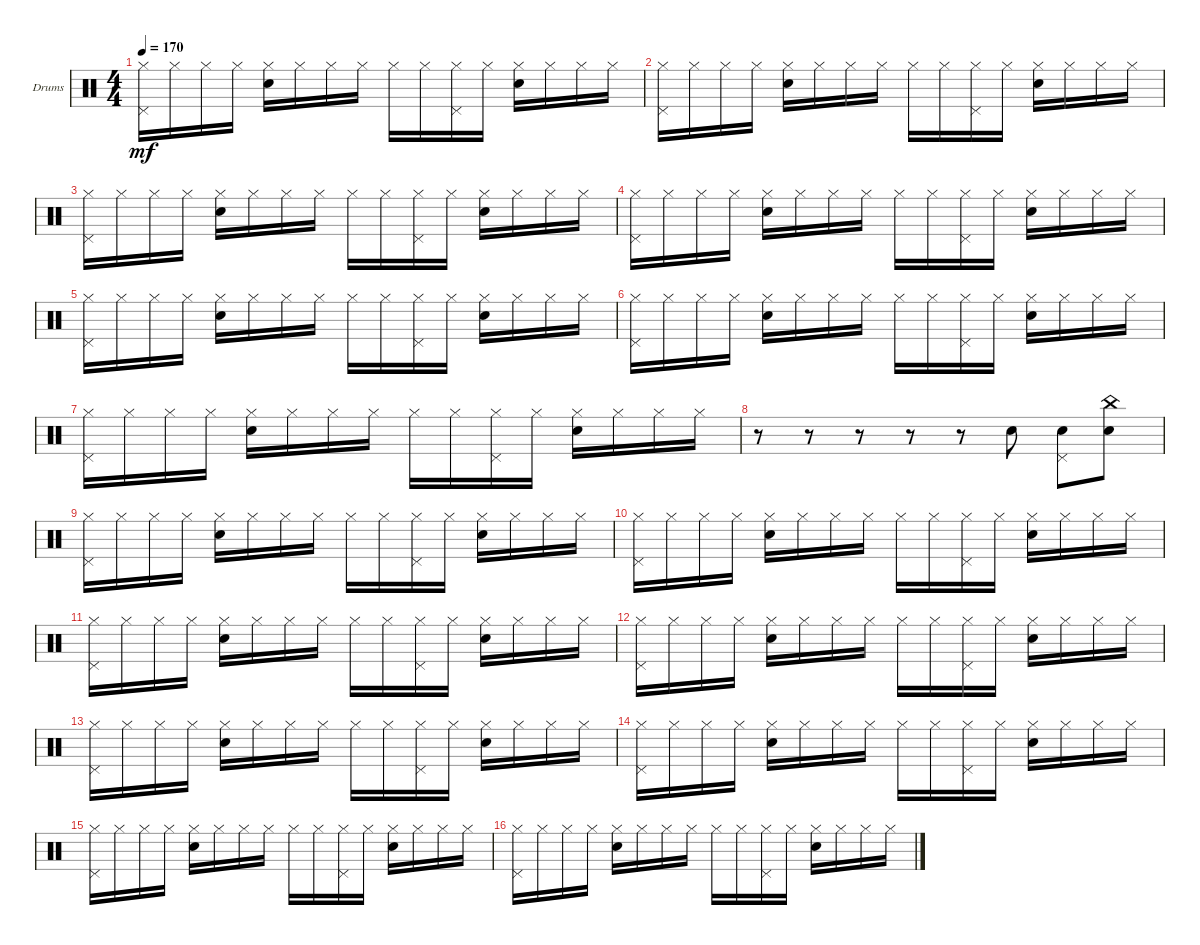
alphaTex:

\defaultSystemsLayout 4
\bracketExtendMode groupsimilarinstruments
\firstSystemTrackNameOrientation horizontal
\otherSystemsTrackNameOrientation horizontal
\track ("Drumkit" "Drums") {instrument percussion}
\staff {score}
\articulation defaults
\ts (4 4)
\tempo 170
\clef neutral
\scale
0.333333
\ks c
("Hi-Hat (closed)" "Pedal Hi-Hat (hit)").16{dy mf} "Hi-Hat (closed)".16 "Hi-Hat (closed)".16 "Hi-Hat (closed)".16 ("Hi-Hat (closed)" "Snare (hit) 2").16 "Hi-Hat (closed)".16 "Hi-Hat (closed)".16 "Hi-Hat (closed)".16 "Hi-Hat (closed)".16 "Hi-Hat (closed)".16 ("Hi-Hat (closed)" "Pedal Hi-Hat (hit)").16 "Hi-Hat (closed)".16 ("Hi-Hat (closed)" "Snare (hit) 2").16 "Hi-Hat (closed)".16 "Hi-Hat (closed)".16 "Hi-Hat (closed)".16 |
\scale
0.333333 ("Hi-Hat (closed)" "Pedal Hi-Hat (hit)").16 "Hi-Hat (closed)".16 "Hi-Hat (closed)".16 "Hi-Hat (closed)".16 ("Hi-Hat (closed)" "Snare (hit) 2").16 "Hi-Hat (closed)".16 "Hi-Hat (closed)".16 "Hi-Hat (closed)".16 "Hi-Hat (closed)".16 "Hi-Hat (closed)".16 ("Hi-Hat (closed)" "Pedal Hi-Hat (hit)").16 "Hi-Hat (closed)".16 ("Hi-Hat (closed)" "Snare (hit) 2").16 "Hi-Hat (closed)".16 "Hi-Hat (closed)".16 "Hi-Hat (closed)".16 |
\scale
0.333333 ("Hi-Hat (closed)" "Pedal Hi-Hat (hit)").16 "Hi-Hat (closed)".16 "Hi-Hat (closed)".16 "Hi-Hat (closed)".16 ("Hi-Hat (closed)" "Snare (hit) 2").16 "Hi-Hat (closed)".16 "Hi-Hat (closed)".16 "Hi-Hat (closed)".16 "Hi-Hat (closed)".16 "Hi-Hat (closed)".16 ("Hi-Hat (closed)" "Pedal Hi-Hat (hit)").16 "Hi-Hat (closed)".16 ("Hi-Hat (closed)" "Snare (hit) 2").16 "Hi-Hat (closed)".16 "Hi-Hat (closed)".16 "Hi-Hat (closed)".16 |
\scale
0.333333 ("Hi-Hat (closed)" "Pedal Hi-Hat (hit)").16 "Hi-Hat (closed)".16 "Hi-Hat (closed)".16 "Hi-Hat (closed)".16 ("Hi-Hat (closed)" "Snare (hit) 2").16 "Hi-Hat (closed)".16 "Hi-Hat (closed)".16 "Hi-Hat (closed)".16 "Hi-Hat (closed)".16 "Hi-Hat (closed)".16 ("Hi-Hat (closed)" "Pedal Hi-Hat (hit)").16 "Hi-Hat (closed)".16 ("Hi-Hat (closed)" "Snare (hit) 2").16 "Hi-Hat (closed)".16 "Hi-Hat (closed)".16 "Hi-Hat (closed)".16 |
\scale
0.333333 ("Hi-Hat (closed)" "Pedal Hi-Hat (hit)").16 "Hi-Hat (closed)".16 "Hi-Hat (closed)".16 "Hi-Hat (closed)".16 ("Hi-Hat (closed)" "Snare (hit) 2").16 "Hi-Hat (closed)".16 "Hi-Hat (closed)".16 "Hi-Hat (closed)".16 "Hi-Hat (closed)".16 "Hi-Hat (closed)".16 ("Hi-Hat (closed)" "Pedal Hi-Hat (hit)").16 "Hi-Hat (closed)".16 ("Hi-Hat (closed)" "Snare (hit) 2").16 "Hi-Hat (closed)".16 "Hi-Hat (closed)".16 "Hi-Hat (closed)".16 |
\scale
0.333333 ("Hi-Hat (closed)" "Pedal Hi-Hat (hit)").16 "Hi-Hat (closed)".16 "Hi-Hat (closed)".16 "Hi-Hat (closed)".16 ("Hi-Hat (closed)" "Snare (hit) 2").16 "Hi-Hat (closed)".16 "Hi-Hat (closed)".16 "Hi-Hat (closed)".16 "Hi-Hat (closed)".16 "Hi-Hat (closed)".16 ("Hi-Hat (closed)" "Pedal Hi-Hat (hit)").16 "Hi-Hat (closed)".16 ("Hi-Hat (closed)" "Snare (hit) 2").16 "Hi-Hat (closed)".16 "Hi-Hat (closed)".16 "Hi-Hat (closed)".16 |
\scale
0.333333 ("Hi-Hat (closed)" "Pedal Hi-Hat (hit)").16 "Hi-Hat (closed)".16 "Hi-Hat (closed)".16 "Hi-Hat (closed)".16 ("Hi-Hat (closed)" "Snare (hit) 2").16 "Hi-Hat (closed)".16 "Hi-Hat (closed)".16 "Hi-Hat (closed)".16 "Hi-Hat (closed)".16 "Hi-Hat (closed)".16 ("Hi-Hat (closed)" "Pedal Hi-Hat (hit)").16 "Hi-Hat (closed)".16 ("Hi-Hat (closed)" "Snare (hit) 2").16 "Hi-Hat (closed)".16 "Hi-Hat (closed)".16 "Hi-Hat (closed)".16 |
\scale
0.333333 r.8 r.8 r.8 r.8 r.8 "Snare (hit) 2".8 ("Pedal Hi-Hat (hit)" "Snare (hit) 2").8 ("China (hit)" "Snare (hit) 2").8 |
\scale
0.333333 ("Hi-Hat (closed)" "Pedal Hi-Hat (hit)").16 "Hi-Hat (closed)".16 "Hi-Hat (closed)".16 "Hi-Hat (closed)".16 ("Hi-Hat (closed)" "Snare (hit) 2").16 "Hi-Hat (closed)".16 "Hi-Hat (closed)".16 "Hi-Hat (closed)".16 "Hi-Hat (closed)".16 "Hi-Hat (closed)".16 ("Hi-Hat (closed)" "Pedal Hi-Hat (hit)").16 "Hi-Hat (closed)".16 ("Hi-Hat (closed)" "Snare (hit) 2").16 "Hi-Hat (closed)".16 "Hi-Hat (closed)".16 "Hi-Hat (closed)".16 |
\scale
0.333333 ("Hi-Hat (closed)" "Pedal Hi-Hat (hit)").16 "Hi-Hat (closed)".16 "Hi-Hat (closed)".16 "Hi-Hat (closed)".16 ("Hi-Hat (closed)" "Snare (hit) 2").16 "Hi-Hat (closed)".16 "Hi-Hat (closed)".16 "Hi-Hat (closed)".16 "Hi-Hat (closed)".16 "Hi-Hat (closed)".16 ("Hi-Hat (closed)" "Pedal Hi-Hat (hit)").16 "Hi-Hat (closed)".16 ("Hi-Hat (closed)" "Snare (hit) 2").16 "Hi-Hat (closed)".16 "Hi-Hat (closed)".16 "Hi-Hat (closed)".16 |
\scale
0.333333 ("Hi-Hat (closed)" "Pedal Hi-Hat (hit)").16 "Hi-Hat (closed)".16 "Hi-Hat (closed)".16 "Hi-Hat (closed)".16 ("Hi-Hat (closed)" "Snare (hit) 2").16 "Hi-Hat (closed)".16 "Hi-Hat (closed)".16 "Hi-Hat (closed)".16 "Hi-Hat (closed)".16 "Hi-Hat (closed)".16 ("Hi-Hat (closed)" "Pedal Hi-Hat (hit)").16 "Hi-Hat (closed)".16 ("Hi-Hat (closed)" "Snare (hit) 2").16 "Hi-Hat (closed)".16 "Hi-Hat (closed)".16 "Hi-Hat (closed)".16 |
\scale
0.333333 ("Hi-Hat (closed)" "Pedal Hi-Hat (hit)").16 "Hi-Hat (closed)".16 "Hi-Hat (closed)".16 "Hi-Hat (closed)".16 ("Hi-Hat (closed)" "Snare (hit) 2").16 "Hi-Hat (closed)".16 "Hi-Hat (closed)".16 "Hi-Hat (closed)".16 "Hi-Hat (closed)".16 "Hi-Hat (closed)".16 ("Hi-Hat (closed)" "Pedal Hi-Hat (hit)").16 "Hi-Hat (closed)".16 ("Hi-Hat (closed)" "Snare (hit) 2").16 "Hi-Hat (closed)".16 "Hi-Hat (closed)".16 "Hi-Hat (closed)".16 |
\scale
0.333333 ("Hi-Hat (closed)" "Pedal Hi-Hat (hit)").16 "Hi-Hat (closed)".16 "Hi-Hat (closed)".16 "Hi-Hat (closed)".16 ("Hi-Hat (closed)" "Snare (hit) 2").16 "Hi-Hat (closed)".16 "Hi-Hat (closed)".16 "Hi-Hat (closed)".16 "Hi-Hat (closed)".16 "Hi-Hat (closed)".16 ("Hi-Hat (closed)" "Pedal Hi-Hat (hit)").16 "Hi-Hat (closed)".16 ("Hi-Hat (closed)" "Snare (hit) 2").16 "Hi-Hat (closed)".16 "Hi-Hat (closed)".16 "Hi-Hat (closed)".16 |
\scale
0.333333 ("Hi-Hat (closed)" "Pedal Hi-Hat (hit)").16 "Hi-Hat (closed)".16 "Hi-Hat (closed)".16 "Hi-Hat (closed)".16 ("Hi-Hat (closed)" "Snare (hit) 2").16 "Hi-Hat (closed)".16 "Hi-Hat (closed)".16 "Hi-Hat (closed)".16 "Hi-Hat (closed)".16 "Hi-Hat (closed)".16 ("Hi-Hat (closed)" "Pedal Hi-Hat (hit)").16 "Hi-Hat (closed)".16 ("Hi-Hat (closed)" "Snare (hit) 2").16 "Hi-Hat (closed)".16 "Hi-Hat (closed)".16 "Hi-Hat (closed)".16 |
\scale
0.333333 ("Hi-Hat (closed)" "Pedal Hi-Hat (hit)").16 "Hi-Hat (closed)".16 "Hi-Hat (closed)".16 "Hi-Hat (closed)".16 ("Hi-Hat (closed)" "Snare (hit) 2").16 "Hi-Hat (closed)".16 "Hi-Hat (closed)".16 "Hi-Hat (closed)".16 "Hi-Hat (closed)".16 "Hi-Hat (closed)".16 ("Hi-Hat (closed)" "Pedal Hi-Hat (hit)").16 "Hi-Hat (closed)".16 ("Hi-Hat (closed)" "Snare (hit) 2").16 "Hi-Hat (closed)".16 "Hi-Hat (closed)".16 "Hi-Hat (closed)".16 |
\scale
0.333333 ("Hi-Hat (closed)" "Pedal Hi-Hat (hit)").16 "Hi-Hat (closed)".16 "Hi-Hat (closed)".16 "Hi-Hat (closed)".16 ("Hi-Hat (closed)" "Snare (hit) 2").16 "Hi-Hat (closed)".16 "Hi-Hat (closed)".16 "Hi-Hat (closed)".16 "Hi-Hat (closed)".16 "Hi-Hat (closed)".16 ("Hi-Hat (closed)" "Pedal Hi-Hat (hit)").16 "Hi-Hat (closed)".16 ("Hi-Hat (closed)" "Snare (hit) 2").16 "Hi-Hat (closed)".16 "Hi-Hat (closed)".16 "Hi-Hat (closed)".16
